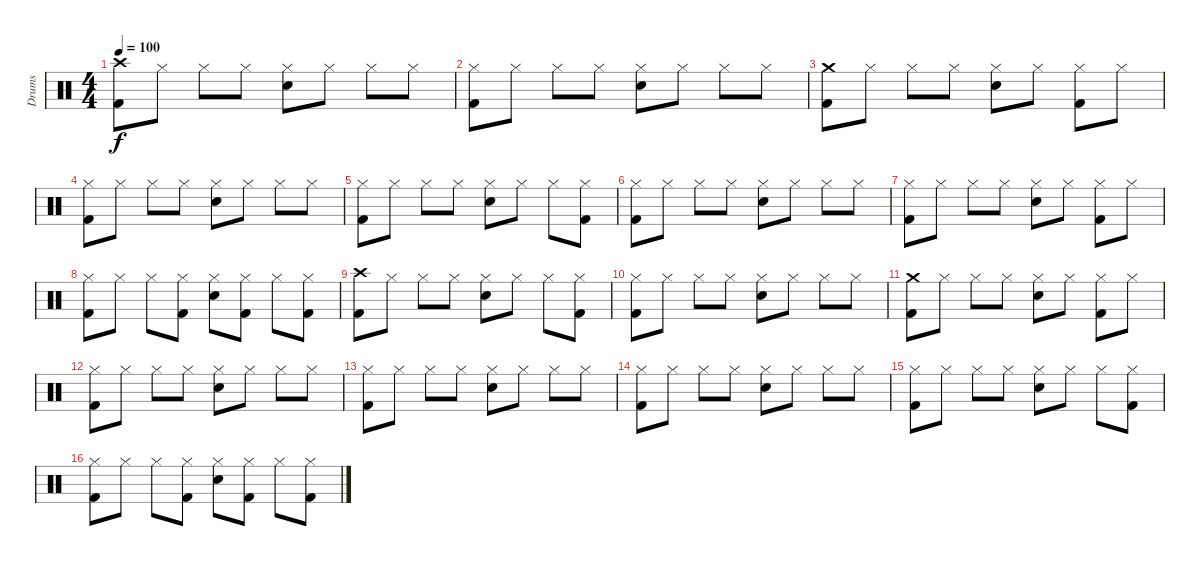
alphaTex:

\track ("Drums" "Drums") {instrument percussion}
\staff {score}
\articulation defaults
\ts (4 4)
\tempo 100
\clef neutral
\ks c
("Kick (hit) 2" "Crash high (hit)").8{dy f} "Hi-Hat (closed)".8 "Hi-Hat (closed)".8 "Hi-Hat (closed)".8 ("Hi-Hat (closed)" "Snare (hit) 2").8 "Hi-Hat (closed)".8 "Hi-Hat (closed)".8 "Hi-Hat (closed)".8 |
("Kick (hit) 2" "Hi-Hat (closed)").8 "Hi-Hat (closed)".8 "Hi-Hat (closed)".8 "Hi-Hat (closed)".8 ("Hi-Hat (closed)" "Snare (hit) 2").8 "Hi-Hat (closed)".8 "Hi-Hat (closed)".8 "Hi-Hat (closed)".8 |
("Kick (hit) 2" "Crash medium (hit)").8 "Hi-Hat (closed)".8 "Hi-Hat (closed)".8 "Hi-Hat (closed)".8 ("Hi-Hat (closed)" "Snare (hit) 2").8 "Hi-Hat (closed)".8 ("Kick (hit) 2" "Hi-Hat (closed)").8 "Hi-Hat (closed)".8 |
("Kick (hit) 2" "Hi-Hat (closed)").8 "Hi-Hat (closed)".8 "Hi-Hat (closed)".8 "Hi-Hat (closed)".8 ("Hi-Hat (closed)" "Snare (hit) 2").8 "Hi-Hat (closed)".8 "Hi-Hat (closed)".8 "Hi-Hat (closed)".8 |
("Kick (hit) 2" "Hi-Hat (closed)").8 "Hi-Hat (closed)".8 "Hi-Hat (closed)".8 "Hi-Hat (closed)".8 ("Hi-Hat (closed)" "Snare (hit) 2").8 "Hi-Hat (closed)".8 "Hi-Hat (closed)".8 ("Kick (hit) 2" "Hi-Hat (closed)").8 |
("Kick (hit) 2" "Hi-Hat (closed)").8 "Hi-Hat (closed)".8 "Hi-Hat (closed)".8 "Hi-Hat (closed)".8 ("Hi-Hat (closed)" "Snare (hit) 2").8 "Hi-Hat (closed)".8 "Hi-Hat (closed)".8 "Hi-Hat (closed)".8 |
("Kick (hit) 2" "Hi-Hat (closed)").8 "Hi-Hat (closed)".8 "Hi-Hat (closed)".8 "Hi-Hat (closed)".8 ("Hi-Hat (closed)" "Snare (hit) 2").8 "Hi-Hat (closed)".8 ("Kick (hit) 2" "Hi-Hat (closed)").8 "Hi-Hat (closed)".8 |
("Kick (hit) 2" "Hi-Hat (closed)").8 "Hi-Hat (closed)".8 "Hi-Hat (closed)".8 ("Kick (hit) 2" "Hi-Hat (closed)").8 ("Hi-Hat (closed)" "Snare (hit) 2").8 ("Kick (hit) 2" "Hi-Hat (closed)").8 "Hi-Hat (closed)".8 ("Kick (hit) 2" "Hi-Hat (closed)").8 |
("Kick (hit) 2" "Crash high (hit)").8 "Hi-Hat (closed)".8 "Hi-Hat (closed)".8 "Hi-Hat (closed)".8 ("Hi-Hat (closed)" "Snare (hit) 2").8 "Hi-Hat (closed)".8 "Hi-Hat (closed)".8 ("Kick (hit) 2" "Hi-Hat (closed)").8 |
("Kick (hit) 2" "Hi-Hat (closed)").8 "Hi-Hat (closed)".8 "Hi-Hat (closed)".8 "Hi-Hat (closed)".8 ("Hi-Hat (closed)" "Snare (hit) 2").8 "Hi-Hat (closed)".8 "Hi-Hat (closed)".8 "Hi-Hat (closed)".8 |
("Kick (hit) 2" "Crash medium (hit)").8 "Hi-Hat (closed)".8 "Hi-Hat (closed)".8 "Hi-Hat (closed)".8 ("Hi-Hat (closed)" "Snare (hit) 2").8 "Hi-Hat (closed)".8 ("Kick (hit) 2" "Hi-Hat (closed)").8 "Hi-Hat (closed)".8 |
("Kick (hit) 2" "Hi-Hat (closed)").8 "Hi-Hat (closed)".8 "Hi-Hat (closed)".8 "Hi-Hat (closed)".8 ("Hi-Hat (closed)" "Snare (hit) 2").8 "Hi-Hat (closed)".8 "Hi-Hat (closed)".8 "Hi-Hat (closed)".8 |
("Kick (hit) 2" "Hi-Hat (closed)").8 "Hi-Hat (closed)".8 "Hi-Hat (closed)".8 "Hi-Hat (closed)".8 ("Hi-Hat (closed)" "Snare (hit) 2").8 "Hi-Hat (closed)".8 "Hi-Hat (closed)".8 "Hi-Hat (closed)".8 |
("Kick (hit) 2" "Hi-Hat (closed)").8 "Hi-Hat (closed)".8 "Hi-Hat (closed)".8 "Hi-Hat (closed)".8 ("Hi-Hat (closed)" "Snare (hit) 2").8 "Hi-Hat (closed)".8 "Hi-Hat (closed)".8 "Hi-Hat (closed)".8 |
("Kick (hit) 2" "Hi-Hat (closed)").8 "Hi-Hat (closed)".8 "Hi-Hat (closed)".8 "Hi-Hat (closed)".8 ("Hi-Hat (closed)" "Snare (hit) 2").8 "Hi-Hat (closed)".8 "Hi-Hat (closed)".8 ("Kick (hit) 2" "Hi-Hat (closed)").8 |
("Kick (hit) 2" "Hi-Hat (closed)").8 "Hi-Hat (closed)".8 "Hi-Hat (closed)".8 ("Kick (hit) 2" "Hi-Hat (closed)").8 ("Hi-Hat (closed)" "Snare (hit) 2").8 ("Kick (hit) 2" "Hi-Hat (closed)").8 "Hi-Hat (closed)".8 ("Kick (hit) 2" "Hi-Hat (closed)").8
